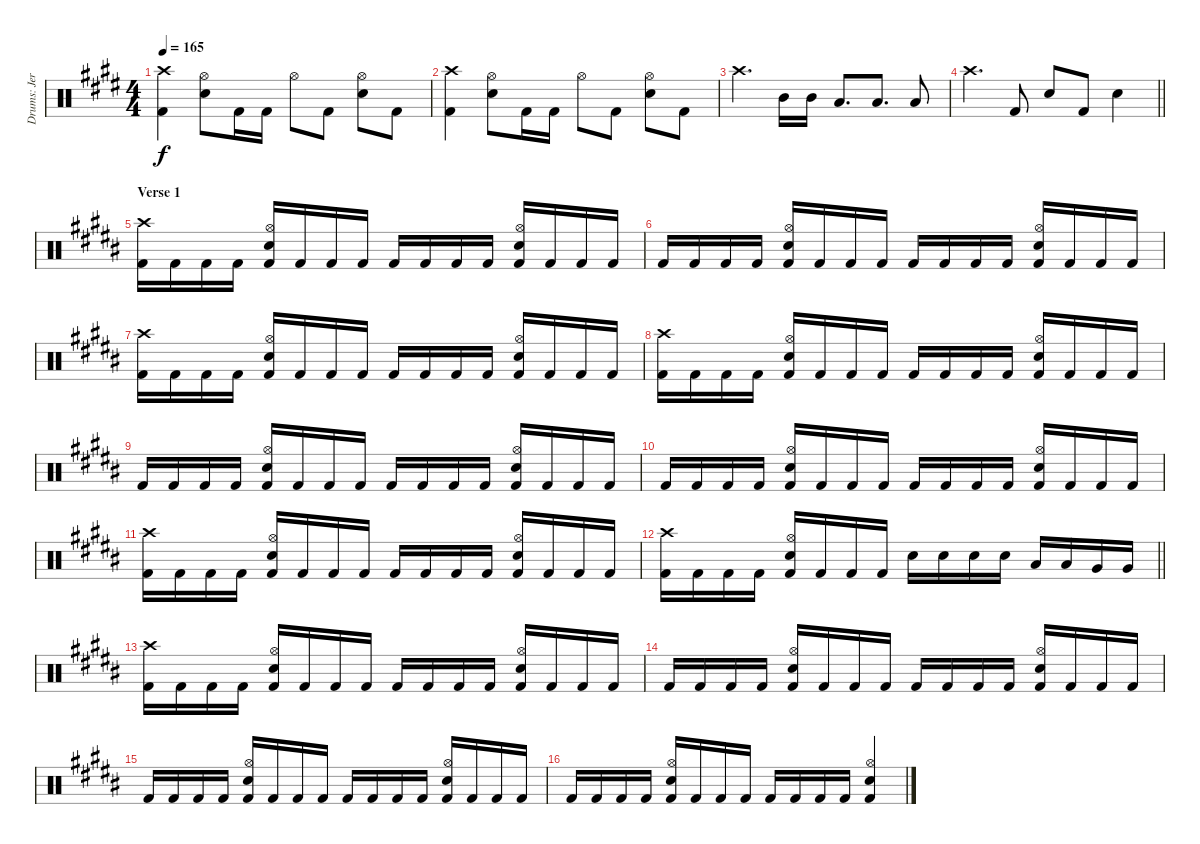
\track ("Drums: Jere Luokkamäki" "Drums: Jer") {instrument percussion}
\staff {score}
\articulation defaults
\ts (4 4)
\tempo 165
\clef neutral
\ks c#minor
("Crash high (hit)" "Kick (hit) 2").4{dy f} ("Hi-Hat (open)" "Electric Snare (hit)").8 "Kick (hit) 2".16 "Kick (hit) 2".16 "Hi-Hat (open)".8 "Kick (hit) 2".8 ("Hi-Hat (open)" "Electric Snare (hit)").8 "Kick (hit) 2".8 |
("Crash high (hit)" "Kick (hit) 2").4 ("Hi-Hat (open)" "Electric Snare (hit)").8 "Kick (hit) 2".16 "Kick (hit) 2".16 "Hi-Hat (open)".8 "Kick (hit) 2".8 ("Hi-Hat (open)" "Electric Snare (hit)").8 "Kick (hit) 2".8 |
"Crash high (hit)".4{d} "Mid Tom (hit)".16 "Mid Tom (hit)".16 "Low Tom (hit)".8{d} "Low Tom (hit)".8{d} "Low Tom (hit)".8 |
\barLineRight lightlight "Crash high (hit)".4{d} "Kick (hit) 2".8 "Electric Snare (hit)".8 "Kick (hit) 2".8 "Electric Snare (hit)".4
|
\section ("" "Verse 1")
\ks g#minor
("Crash high (hit)" "Kick (hit) 2").16 "Kick (hit) 2".16 "Kick (hit) 2".16 "Kick (hit) 2".16 ("Hi-Hat (open)" "Electric Snare (hit)" "Kick (hit) 2").16 "Kick (hit) 2".16 "Kick (hit) 2".16 "Kick (hit) 2".16 "Kick (hit) 2".16 "Kick (hit) 2".16 "Kick (hit) 2".16 "Kick (hit) 2".16 ("Hi-Hat (open)" "Electric Snare (hit)" "Kick (hit) 2").16 "Kick (hit) 2".16 "Kick (hit) 2".16 "Kick (hit) 2".16 |
"Kick (hit) 2".16 "Kick (hit) 2".16 "Kick (hit) 2".16 "Kick (hit) 2".16 ("Hi-Hat (open)" "Electric Snare (hit)" "Kick (hit) 2").16 "Kick (hit) 2".16 "Kick (hit) 2".16 "Kick (hit) 2".16 "Kick (hit) 2".16 "Kick (hit) 2".16 "Kick (hit) 2".16 "Kick (hit) 2".16 ("Hi-Hat (open)" "Electric Snare (hit)" "Kick (hit) 2").16 "Kick (hit) 2".16 "Kick (hit) 2".16 "Kick (hit) 2".16 |
("Crash high (hit)" "Kick (hit) 2").16 "Kick (hit) 2".16 "Kick (hit) 2".16 "Kick (hit) 2".16 ("Hi-Hat (open)" "Electric Snare (hit)" "Kick (hit) 2").16 "Kick (hit) 2".16 "Kick (hit) 2".16 "Kick (hit) 2".16 "Kick (hit) 2".16 "Kick (hit) 2".16 "Kick (hit) 2".16 "Kick (hit) 2".16 ("Hi-Hat (open)" "Electric Snare (hit)" "Kick (hit) 2").16 "Kick (hit) 2".16 "Kick (hit) 2".16 "Kick (hit) 2".16 |
("Crash high (hit)" "Kick (hit) 2").16 "Kick (hit) 2".16 "Kick (hit) 2".16 "Kick (hit) 2".16 ("Hi-Hat (open)" "Electric Snare (hit)" "Kick (hit) 2").16 "Kick (hit) 2".16 "Kick (hit) 2".16 "Kick (hit) 2".16 "Kick (hit) 2".16 "Kick (hit) 2".16 "Kick (hit) 2".16 "Kick (hit) 2".16 ("Hi-Hat (open)" "Electric Snare (hit)" "Kick (hit) 2").16 "Kick (hit) 2".16 "Kick (hit) 2".16 "Kick (hit) 2".16 |
"Kick (hit) 2".16 "Kick (hit) 2".16 "Kick (hit) 2".16 "Kick (hit) 2".16 ("Hi-Hat (open)" "Electric Snare (hit)" "Kick (hit) 2").16 "Kick (hit) 2".16 "Kick (hit) 2".16 "Kick (hit) 2".16 "Kick (hit) 2".16 "Kick (hit) 2".16 "Kick (hit) 2".16 "Kick (hit) 2".16 ("Hi-Hat (open)" "Electric Snare (hit)" "Kick (hit) 2").16 "Kick (hit) 2".16 "Kick (hit) 2".16 "Kick (hit) 2".16 |
"Kick (hit) 2".16 "Kick (hit) 2".16 "Kick (hit) 2".16 "Kick (hit) 2".16 ("Hi-Hat (open)" "Electric Snare (hit)" "Kick (hit) 2").16 "Kick (hit) 2".16 "Kick (hit) 2".16 "Kick (hit) 2".16 "Kick (hit) 2".16 "Kick (hit) 2".16 "Kick (hit) 2".16 "Kick (hit) 2".16 ("Hi-Hat (open)" "Electric Snare (hit)" "Kick (hit) 2").16 "Kick (hit) 2".16 "Kick (hit) 2".16 "Kick (hit) 2".16 |
("Crash high (hit)" "Kick (hit) 2").16 "Kick (hit) 2".16 "Kick (hit) 2".16 "Kick (hit) 2".16 ("Hi-Hat (open)" "Electric Snare (hit)" "Kick (hit) 2").16 "Kick (hit) 2".16 "Kick (hit) 2".16 "Kick (hit) 2".16 "Kick (hit) 2".16 "Kick (hit) 2".16 "Kick (hit) 2".16 "Kick (hit) 2".16 ("Hi-Hat (open)" "Electric Snare (hit)" "Kick (hit) 2").16 "Kick (hit) 2".16 "Kick (hit) 2".16 "Kick (hit) 2".16 |
\barLineRight lightlight
("Crash high (hit)" "Kick (hit) 2").16 "Kick (hit) 2".16 "Kick (hit) 2".16 "Kick (hit) 2".16 ("Hi-Hat (open)" "Electric Snare (hit)" "Kick (hit) 2").16 "Kick (hit) 2".16 "Kick (hit) 2".16 "Kick (hit) 2".16 "Electric Snare (hit)".16 "Electric Snare (hit)".16 "Electric Snare (hit)".16 "Electric Snare (hit)".16 "Low Tom (hit)".16 "Low Tom (hit)".16 "Very Low Tom (hit)".16 "Very Low Tom (hit)".16 |
\section ("" "")
("Crash high (hit)" "Kick (hit) 2").16 "Kick (hit) 2".16 "Kick (hit) 2".16 "Kick (hit) 2".16 ("Hi-Hat (open)" "Electric Snare (hit)" "Kick (hit) 2").16 "Kick (hit) 2".16 "Kick (hit) 2".16 "Kick (hit) 2".16 "Kick (hit) 2".16 "Kick (hit) 2".16 "Kick (hit) 2".16 "Kick (hit) 2".16 ("Hi-Hat (open)" "Electric Snare (hit)" "Kick (hit) 2").16 "Kick (hit) 2".16 "Kick (hit) 2".16 "Kick (hit) 2".16 |
"Kick (hit) 2".16 "Kick (hit) 2".16 "Kick (hit) 2".16 "Kick (hit) 2".16 ("Hi-Hat (open)" "Electric Snare (hit)" "Kick (hit) 2").16 "Kick (hit) 2".16 "Kick (hit) 2".16 "Kick (hit) 2".16 "Kick (hit) 2".16 "Kick (hit) 2".16 "Kick (hit) 2".16 "Kick (hit) 2".16 ("Hi-Hat (open)" "Electric Snare (hit)" "Kick (hit) 2").16 "Kick (hit) 2".16 "Kick (hit) 2".16 "Kick (hit) 2".16 |
"Kick (hit) 2".16 "Kick (hit) 2".16 "Kick (hit) 2".16 "Kick (hit) 2".16 ("Hi-Hat (open)" "Electric Snare (hit)" "Kick (hit) 2").16 "Kick (hit) 2".16 "Kick (hit) 2".16 "Kick (hit) 2".16 "Kick (hit) 2".16 "Kick (hit) 2".16 "Kick (hit) 2".16 "Kick (hit) 2".16 ("Hi-Hat (open)" "Electric Snare (hit)" "Kick (hit) 2").16 "Kick (hit) 2".16 "Kick (hit) 2".16 "Kick (hit) 2".16 |
"Kick (hit) 2".16 "Kick (hit) 2".16 "Kick (hit) 2".16 "Kick (hit) 2".16 ("Hi-Hat (open)" "Electric Snare (hit)" "Kick (hit) 2").16 "Kick (hit) 2".16 "Kick (hit) 2".16 "Kick (hit) 2".16 "Kick (hit) 2".16 "Kick (hit) 2".16 "Kick (hit) 2".16 "Kick (hit) 2".16 ("Hi-Hat (open)" "Electric Snare (hit)" "Kick (hit) 2").4
